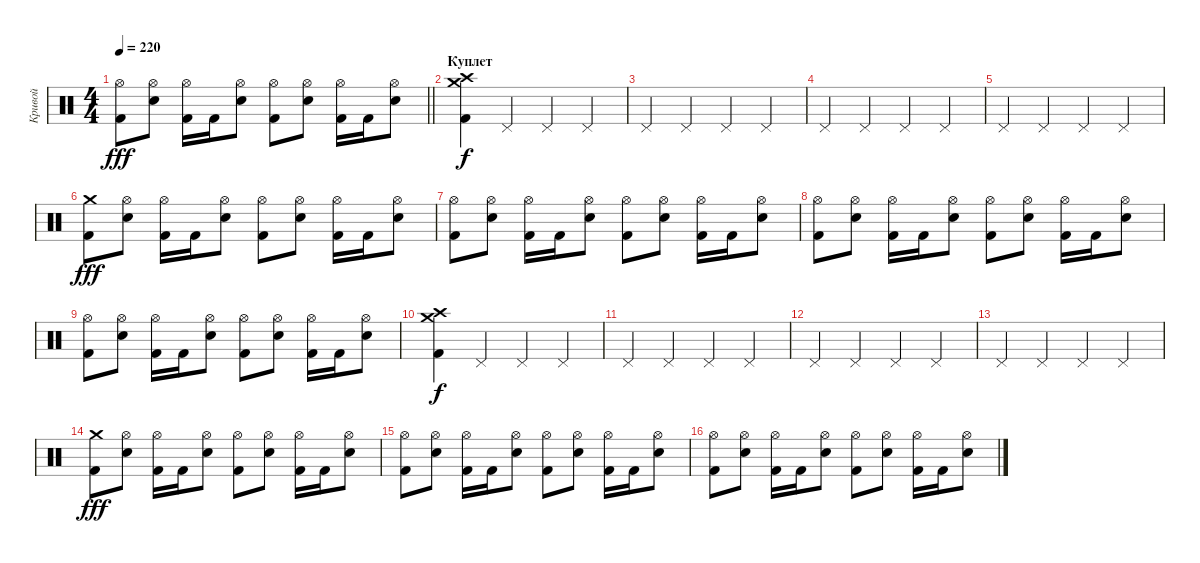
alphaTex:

\track ("Кривой" "Кривой") {instrument percussion}
\staff {score}
\articulation defaults
\ts (4 4)
\tempo 220
\clef neutral
\barLineRight lightlight
\ks c
("Hi-Hat (open)" "Kick (hit) 2").8{dy fff} ("Hi-Hat (open)" "Electric Snare (hit)").8 ("Hi-Hat (open)" "Kick (hit) 2").16 "Kick (hit) 2".16 ("Hi-Hat (open)" "Electric Snare (hit)").8 ("Hi-Hat (open)" "Kick (hit) 2").8 ("Hi-Hat (open)" "Electric Snare (hit)").8 ("Hi-Hat (open)" "Kick (hit) 2").16 "Kick (hit) 2".16 ("Hi-Hat (open)" "Electric Snare (hit)").8 |
\section ("" "Куплет")
("Crash medium (hit)" "Crash high (hit)" "Kick (hit) 2").4{dy f} "Pedal Hi-Hat (hit)".4 "Pedal Hi-Hat (hit)".4 "Pedal Hi-Hat (hit)".4 |
"Pedal Hi-Hat (hit)".4 "Pedal Hi-Hat (hit)".4 "Pedal Hi-Hat (hit)".4 "Pedal Hi-Hat (hit)".4 |
"Pedal Hi-Hat (hit)".4 "Pedal Hi-Hat (hit)".4 "Pedal Hi-Hat (hit)".4 "Pedal Hi-Hat (hit)".4 |
"Pedal Hi-Hat (hit)".4 "Pedal Hi-Hat (hit)".4 "Pedal Hi-Hat (hit)".4 "Pedal Hi-Hat (hit)".4 |
("Crash medium (hit)" "Kick (hit) 2").8{dy fff} ("Hi-Hat (open)" "Electric Snare (hit)").8 ("Hi-Hat (open)" "Kick (hit) 2").16 "Kick (hit) 2".16 ("Hi-Hat (open)" "Electric Snare (hit)").8 ("Hi-Hat (open)" "Kick (hit) 2").8 ("Hi-Hat (open)" "Electric Snare (hit)").8 ("Hi-Hat (open)" "Kick (hit) 2").16 "Kick (hit) 2".16 ("Hi-Hat (open)" "Electric Snare (hit)").8 |
("Hi-Hat (open)" "Kick (hit) 2").8 ("Hi-Hat (open)" "Electric Snare (hit)").8 ("Hi-Hat (open)" "Kick (hit) 2").16 "Kick (hit) 2".16 ("Hi-Hat (open)" "Electric Snare (hit)").8 ("Hi-Hat (open)" "Kick (hit) 2").8 ("Hi-Hat (open)" "Electric Snare (hit)").8 ("Hi-Hat (open)" "Kick (hit) 2").16 "Kick (hit) 2".16 ("Hi-Hat (open)" "Electric Snare (hit)").8 |
("Hi-Hat (open)" "Kick (hit) 2").8 ("Hi-Hat (open)" "Electric Snare (hit)").8 ("Hi-Hat (open)" "Kick (hit) 2").16 "Kick (hit) 2".16 ("Hi-Hat (open)" "Electric Snare (hit)").8 ("Hi-Hat (open)" "Kick (hit) 2").8 ("Hi-Hat (open)" "Electric Snare (hit)").8 ("Hi-Hat (open)" "Kick (hit) 2").16 "Kick (hit) 2".16 ("Hi-Hat (open)" "Electric Snare (hit)").8 |
("Hi-Hat (open)" "Kick (hit) 2").8 ("Hi-Hat (open)" "Electric Snare (hit)").8 ("Hi-Hat (open)" "Kick (hit) 2").16 "Kick (hit) 2".16 ("Hi-Hat (open)" "Electric Snare (hit)").8 ("Hi-Hat (open)" "Kick (hit) 2").8 ("Hi-Hat (open)" "Electric Snare (hit)").8 ("Hi-Hat (open)" "Kick (hit) 2").16 "Kick (hit) 2".16 ("Hi-Hat (open)" "Electric Snare (hit)").8 |
("Crash medium (hit)" "Crash high (hit)" "Kick (hit) 2").4{dy f} "Pedal Hi-Hat (hit)".4 "Pedal Hi-Hat (hit)".4 "Pedal Hi-Hat (hit)".4 |
"Pedal Hi-Hat (hit)".4 "Pedal Hi-Hat (hit)".4 "Pedal Hi-Hat (hit)".4 "Pedal Hi-Hat (hit)".4 |
"Pedal Hi-Hat (hit)".4 "Pedal Hi-Hat (hit)".4 "Pedal Hi-Hat (hit)".4 "Pedal Hi-Hat (hit)".4 |
"Pedal Hi-Hat (hit)".4 "Pedal Hi-Hat (hit)".4 "Pedal Hi-Hat (hit)".4 "Pedal Hi-Hat (hit)".4 |
("Crash medium (hit)" "Kick (hit) 2").8{dy fff} ("Hi-Hat (open)" "Electric Snare (hit)").8 ("Hi-Hat (open)" "Kick (hit) 2").16 "Kick (hit) 2".16 ("Hi-Hat (open)" "Electric Snare (hit)").8 ("Hi-Hat (open)" "Kick (hit) 2").8 ("Hi-Hat (open)" "Electric Snare (hit)").8 ("Hi-Hat (open)" "Kick (hit) 2").16 "Kick (hit) 2".16 ("Hi-Hat (open)" "Electric Snare (hit)").8 |
("Hi-Hat (open)" "Kick (hit) 2").8 ("Hi-Hat (open)" "Electric Snare (hit)").8 ("Hi-Hat (open)" "Kick (hit) 2").16 "Kick (hit) 2".16 ("Hi-Hat (open)" "Electric Snare (hit)").8 ("Hi-Hat (open)" "Kick (hit) 2").8 ("Hi-Hat (open)" "Electric Snare (hit)").8 ("Hi-Hat (open)" "Kick (hit) 2").16 "Kick (hit) 2".16 ("Hi-Hat (open)" "Electric Snare (hit)").8 |
("Hi-Hat (open)" "Kick (hit) 2").8 ("Hi-Hat (open)" "Electric Snare (hit)").8 ("Hi-Hat (open)" "Kick (hit) 2").16 "Kick (hit) 2".16 ("Hi-Hat (open)" "Electric Snare (hit)").8 ("Hi-Hat (open)" "Kick (hit) 2").8 ("Hi-Hat (open)" "Electric Snare (hit)").8 ("Hi-Hat (open)" "Kick (hit) 2").16 "Kick (hit) 2".16 ("Hi-Hat (open)" "Electric Snare (hit)").8
